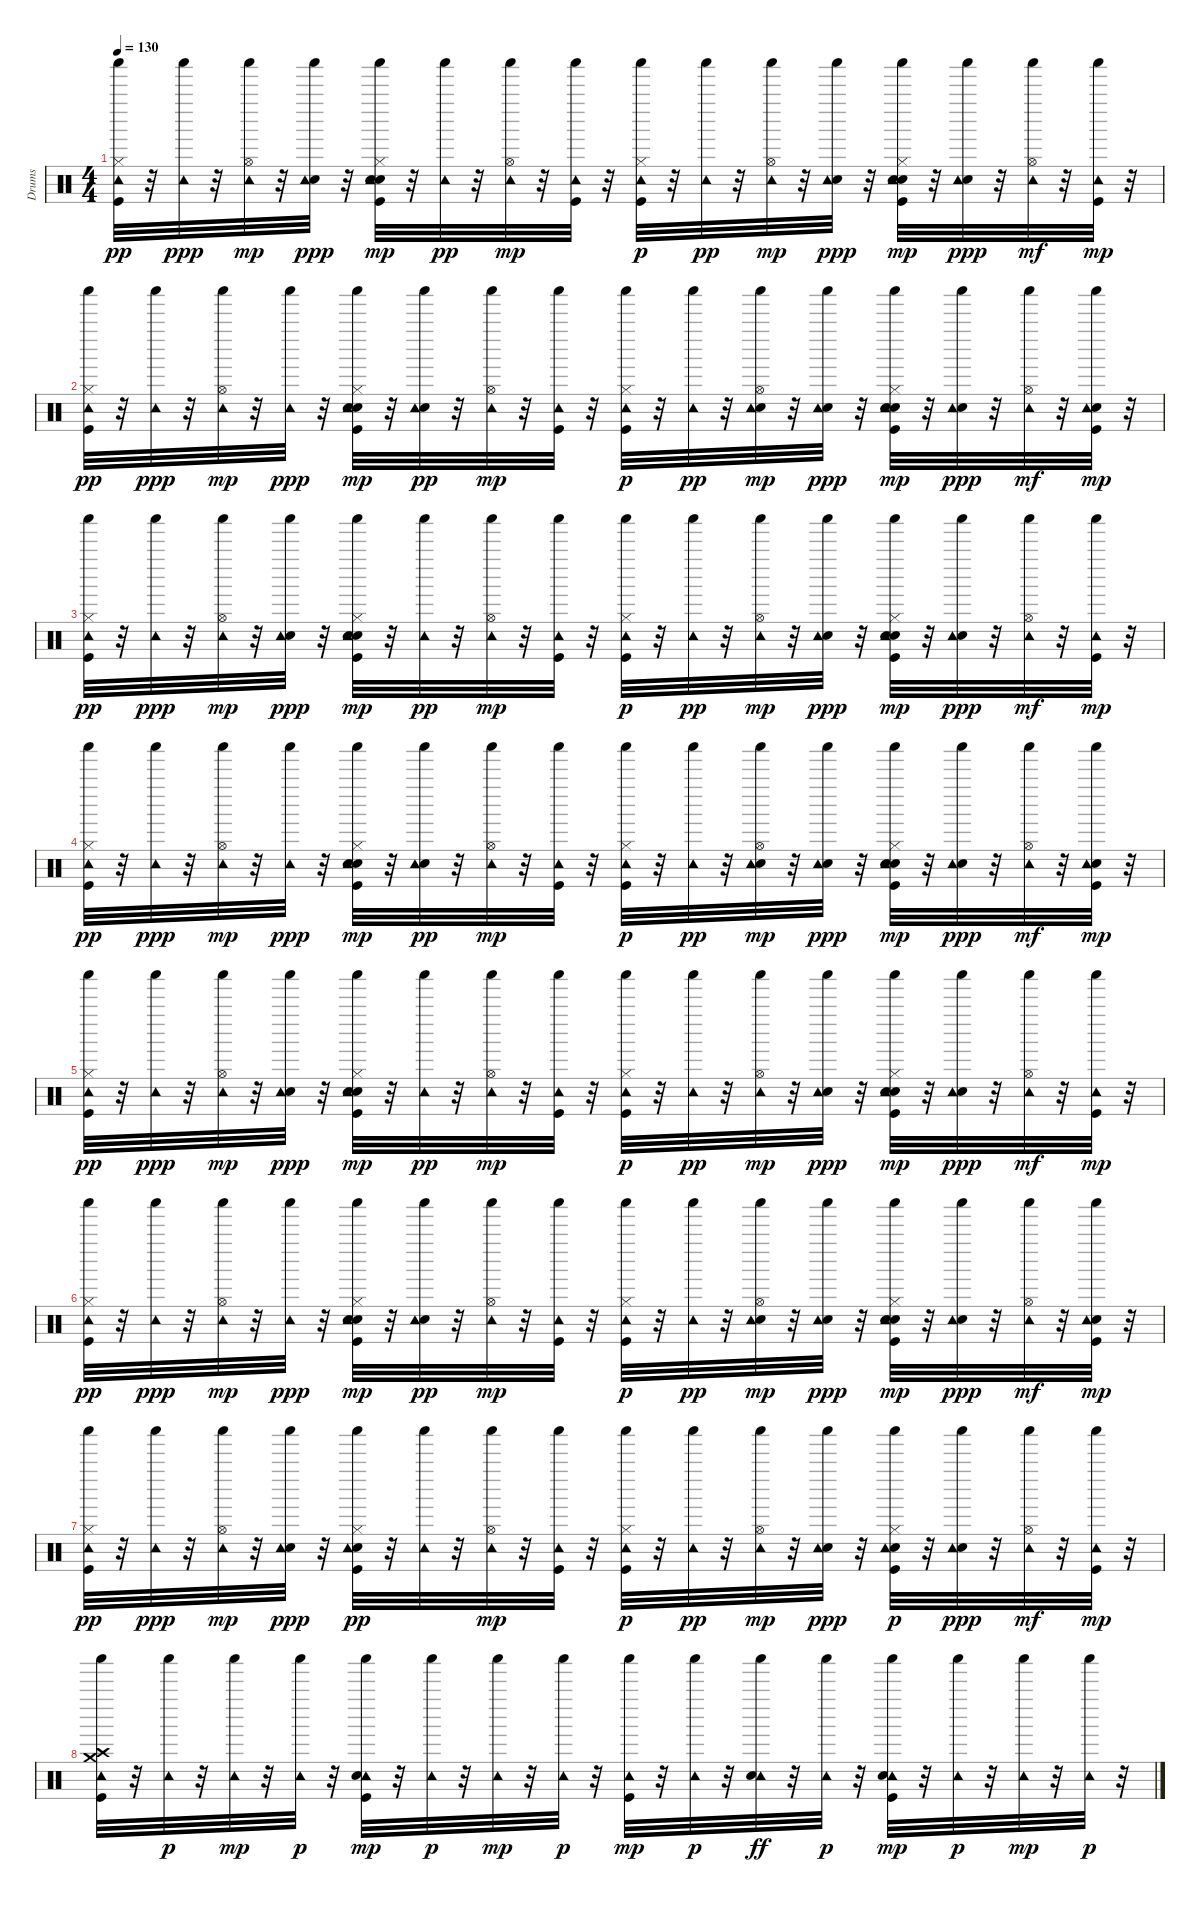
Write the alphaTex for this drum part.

\track ("Drums" "Drums") {instrument percussion}
\staff {score}
\articulation defaults
\ts (4 4)
\tempo 130
\clef neutral
\ks c
("Kick (hit)" "Shaker (hit)" "Hi-Hat (closed)" "Tambourine (hit)").32{dy pp} r.32 ("Shaker (hit)" "Tambourine (hit)").32{dy ppp} r.32 ("Shaker (hit)" "Hi-Hat (open)" "Tambourine (hit)").32{dy mp} r.32 ("Shaker (hit)" "Electric Snare (hit)" "Tambourine (hit)").32{dy ppp} r.32 ("Kick (hit)" "Shaker (hit)" "Hi-Hat (closed)" "Hand Clap (hit)" "Tambourine (hit)" "Snare (hit) 2").32{dy mp} r.32 ("Shaker (hit)" "Tambourine (hit)").32{dy pp} r.32 ("Shaker (hit)" "Hi-Hat (open)" "Tambourine (hit)").32{dy mp} r.32 ("Shaker (hit)" "Tambourine (hit)" "Kick (hit)").32 r.32 ("Kick (hit)" "Shaker (hit)" "Hi-Hat (closed)" "Tambourine (hit)").32{dy p} r.32 ("Shaker (hit)" "Tambourine (hit)").32{dy pp} r.32 ("Shaker (hit)" "Hi-Hat (open)" "Tambourine (hit)").32{dy mp} r.32 ("Shaker (hit)" "Electric Snare (hit)" "Tambourine (hit)").32{dy ppp} r.32 ("Kick (hit)" "Shaker (hit)" "Hi-Hat (closed)" "Hand Clap (hit)" "Tambourine (hit)" "Snare (hit) 2").32{dy mp} r.32 ("Shaker (hit)" "Electric Snare (hit)" "Tambourine (hit)").32{dy ppp} r.32 ("Shaker (hit)" "Hi-Hat (open)" "Tambourine (hit)").32{dy mf} r.32 ("Shaker (hit)" "Tambourine (hit)" "Kick (hit)").32{dy mp} r.32 |
("Kick (hit)" "Shaker (hit)" "Hi-Hat (closed)" "Tambourine (hit)").32{dy pp} r.32 ("Shaker (hit)" "Tambourine (hit)").32{dy ppp} r.32 ("Shaker (hit)" "Hi-Hat (open)" "Tambourine (hit)").32{dy mp} r.32 ("Shaker (hit)" "Tambourine (hit)").32{dy ppp} r.32 ("Kick (hit)" "Shaker (hit)" "Hi-Hat (closed)" "Hand Clap (hit)" "Tambourine (hit)" "Snare (hit) 2").32{dy mp} r.32 ("Shaker (hit)" "Electric Snare (hit)" "Tambourine (hit)").32{dy pp} r.32 ("Shaker (hit)" "Hi-Hat (open)" "Tambourine (hit)").32{dy mp} r.32 ("Shaker (hit)" "Tambourine (hit)" "Kick (hit)").32 r.32 ("Kick (hit)" "Shaker (hit)" "Hi-Hat (closed)" "Tambourine (hit)").32{dy p} r.32 ("Shaker (hit)" "Tambourine (hit)").32{dy pp} r.32 ("Shaker (hit)" "Hand Clap (hit)" "Hi-Hat (open)" "Tambourine (hit)").32{dy mp} r.32 ("Shaker (hit)" "Electric Snare (hit)" "Tambourine (hit)").32{dy ppp} r.32 ("Kick (hit)" "Shaker (hit)" "Hi-Hat (closed)" "Hand Clap (hit)" "Tambourine (hit)" "Snare (hit) 2").32{dy mp} r.32 ("Shaker (hit)" "Electric Snare (hit)" "Tambourine (hit)").32{dy ppp} r.32 ("Shaker (hit)" "Hi-Hat (open)" "Tambourine (hit)").32{dy mf} r.32 ("Shaker (hit)" "Electric Snare (hit)" "Tambourine (hit)" "Kick (hit)").32{dy mp} r.32 |
("Kick (hit)" "Hi-Hat (closed)" "Shaker (hit)" "Tambourine (hit)").32{dy pp} r.32 ("Shaker (hit)" "Tambourine (hit)").32{dy ppp} r.32 ("Shaker (hit)" "Hi-Hat (open)" "Tambourine (hit)").32{dy mp} r.32 ("Shaker (hit)" "Electric Snare (hit)" "Tambourine (hit)").32{dy ppp} r.32 ("Kick (hit)" "Hi-Hat (closed)" "Hand Clap (hit)" "Shaker (hit)" "Tambourine (hit)" "Snare (hit) 2").32{dy mp} r.32 ("Shaker (hit)" "Tambourine (hit)").32{dy pp} r.32 ("Shaker (hit)" "Hi-Hat (open)" "Tambourine (hit)").32{dy mp} r.32 ("Shaker (hit)" "Tambourine (hit)" "Kick (hit)").32 r.32 ("Kick (hit)" "Hi-Hat (closed)" "Shaker (hit)" "Tambourine (hit)").32{dy p} r.32 ("Shaker (hit)" "Tambourine (hit)").32{dy pp} r.32 ("Shaker (hit)" "Hi-Hat (open)" "Tambourine (hit)").32{dy mp} r.32 ("Shaker (hit)" "Electric Snare (hit)" "Tambourine (hit)").32{dy ppp} r.32 ("Kick (hit)" "Hi-Hat (closed)" "Hand Clap (hit)" "Shaker (hit)" "Tambourine (hit)" "Snare (hit) 2").32{dy mp} r.32 ("Shaker (hit)" "Electric Snare (hit)" "Tambourine (hit)").32{dy ppp} r.32 ("Shaker (hit)" "Hi-Hat (open)" "Tambourine (hit)").32{dy mf} r.32 ("Shaker (hit)" "Tambourine (hit)" "Kick (hit)").32{dy mp} r.32 |
("Kick (hit)" "Hi-Hat (closed)" "Shaker (hit)" "Tambourine (hit)").32{dy pp} r.32 ("Shaker (hit)" "Tambourine (hit)").32{dy ppp} r.32 ("Shaker (hit)" "Hi-Hat (open)" "Tambourine (hit)").32{dy mp} r.32 ("Shaker (hit)" "Tambourine (hit)").32{dy ppp} r.32 ("Kick (hit)" "Hi-Hat (closed)" "Hand Clap (hit)" "Shaker (hit)" "Tambourine (hit)" "Snare (hit) 2").32{dy mp} r.32 ("Shaker (hit)" "Electric Snare (hit)" "Tambourine (hit)").32{dy pp} r.32 ("Shaker (hit)" "Hi-Hat (open)" "Tambourine (hit)").32{dy mp} r.32 ("Shaker (hit)" "Tambourine (hit)" "Kick (hit)").32 r.32 ("Kick (hit)" "Hi-Hat (closed)" "Shaker (hit)" "Tambourine (hit)").32{dy p} r.32 ("Shaker (hit)" "Tambourine (hit)").32{dy pp} r.32 ("Hand Clap (hit)" "Shaker (hit)" "Hi-Hat (open)" "Tambourine (hit)").32{dy mp} r.32 ("Shaker (hit)" "Electric Snare (hit)" "Tambourine (hit)").32{dy ppp} r.32 ("Kick (hit)" "Hi-Hat (closed)" "Hand Clap (hit)" "Shaker (hit)" "Tambourine (hit)" "Snare (hit) 2").32{dy mp} r.32 ("Shaker (hit)" "Electric Snare (hit)" "Tambourine (hit)").32{dy ppp} r.32 ("Shaker (hit)" "Hi-Hat (open)" "Tambourine (hit)").32{dy mf} r.32 ("Shaker (hit)" "Electric Snare (hit)" "Tambourine (hit)" "Kick (hit)").32{dy mp} r.32 |
("Kick (hit)" "Shaker (hit)" "Hi-Hat (closed)" "Tambourine (hit)").32{dy pp} r.32 ("Shaker (hit)" "Tambourine (hit)").32{dy ppp} r.32 ("Shaker (hit)" "Hi-Hat (open)" "Tambourine (hit)").32{dy mp} r.32 ("Shaker (hit)" "Electric Snare (hit)" "Tambourine (hit)").32{dy ppp} r.32 ("Kick (hit)" "Shaker (hit)" "Hi-Hat (closed)" "Hand Clap (hit)" "Tambourine (hit)" "Snare (hit) 2").32{dy mp} r.32 ("Shaker (hit)" "Tambourine (hit)").32{dy pp} r.32 ("Shaker (hit)" "Hi-Hat (open)" "Tambourine (hit)").32{dy mp} r.32 ("Shaker (hit)" "Tambourine (hit)" "Kick (hit)").32 r.32 ("Kick (hit)" "Shaker (hit)" "Hi-Hat (closed)" "Tambourine (hit)").32{dy p} r.32 ("Shaker (hit)" "Tambourine (hit)").32{dy pp} r.32 ("Shaker (hit)" "Hi-Hat (open)" "Tambourine (hit)").32{dy mp} r.32 ("Shaker (hit)" "Electric Snare (hit)" "Tambourine (hit)").32{dy ppp} r.32 ("Kick (hit)" "Shaker (hit)" "Hi-Hat (closed)" "Hand Clap (hit)" "Tambourine (hit)" "Snare (hit) 2").32{dy mp} r.32 ("Shaker (hit)" "Electric Snare (hit)" "Tambourine (hit)").32{dy ppp} r.32 ("Shaker (hit)" "Hi-Hat (open)" "Tambourine (hit)").32{dy mf} r.32 ("Shaker (hit)" "Tambourine (hit)" "Kick (hit)").32{dy mp} r.32 |
("Kick (hit)" "Shaker (hit)" "Hi-Hat (closed)" "Tambourine (hit)").32{dy pp} r.32 ("Shaker (hit)" "Tambourine (hit)").32{dy ppp} r.32 ("Shaker (hit)" "Hi-Hat (open)" "Tambourine (hit)").32{dy mp} r.32 ("Shaker (hit)" "Tambourine (hit)").32{dy ppp} r.32 ("Kick (hit)" "Shaker (hit)" "Hi-Hat (closed)" "Hand Clap (hit)" "Tambourine (hit)" "Snare (hit) 2").32{dy mp} r.32 ("Shaker (hit)" "Electric Snare (hit)" "Tambourine (hit)").32{dy pp} r.32 ("Shaker (hit)" "Hi-Hat (open)" "Tambourine (hit)").32{dy mp} r.32 ("Shaker (hit)" "Tambourine (hit)" "Kick (hit)").32 r.32 ("Kick (hit)" "Shaker (hit)" "Hi-Hat (closed)" "Tambourine (hit)").32{dy p} r.32 ("Shaker (hit)" "Tambourine (hit)").32{dy pp} r.32 ("Shaker (hit)" "Hand Clap (hit)" "Hi-Hat (open)" "Tambourine (hit)").32{dy mp} r.32 ("Shaker (hit)" "Electric Snare (hit)" "Tambourine (hit)").32{dy ppp} r.32 ("Kick (hit)" "Shaker (hit)" "Hi-Hat (closed)" "Hand Clap (hit)" "Tambourine (hit)" "Snare (hit) 2").32{dy mp} r.32 ("Shaker (hit)" "Electric Snare (hit)" "Tambourine (hit)").32{dy ppp} r.32 ("Shaker (hit)" "Hi-Hat (open)" "Tambourine (hit)").32{dy mf} r.32 ("Shaker (hit)" "Electric Snare (hit)" "Tambourine (hit)" "Kick (hit)").32{dy mp} r.32 |
("Kick (hit)" "Shaker (hit)" "Hi-Hat (closed)" "Tambourine (hit)").32{dy pp} r.32 ("Shaker (hit)" "Tambourine (hit)").32{dy ppp} r.32 ("Shaker (hit)" "Hi-Hat (open)" "Tambourine (hit)").32{dy mp} r.32 ("Shaker (hit)" "Electric Snare (hit)" "Tambourine (hit)").32{dy ppp} r.32 ("Kick (hit)" "Shaker (hit)" "Hi-Hat (closed)" "Hand Clap (hit)" "Tambourine (hit)").32{dy pp} r.32 ("Shaker (hit)" "Tambourine (hit)").32 r.32 ("Shaker (hit)" "Hi-Hat (open)" "Tambourine (hit)").32{dy mp} r.32 ("Shaker (hit)" "Tambourine (hit)" "Kick (hit)").32 r.32 ("Kick (hit)" "Shaker (hit)" "Hi-Hat (closed)" "Tambourine (hit)").32{dy p} r.32 ("Shaker (hit)" "Tambourine (hit)").32{dy pp} r.32 ("Shaker (hit)" "Hi-Hat (open)" "Tambourine (hit)").32{dy mp} r.32 ("Shaker (hit)" "Electric Snare (hit)" "Tambourine (hit)").32{dy ppp} r.32 ("Kick (hit)" "Shaker (hit)" "Hi-Hat (closed)" "Hand Clap (hit)" "Tambourine (hit)").32{dy p} r.32 ("Shaker (hit)" "Electric Snare (hit)" "Tambourine (hit)").32{dy ppp} r.32 ("Shaker (hit)" "Hi-Hat (open)" "Tambourine (hit)").32{dy mf} r.32 ("Shaker (hit)" "Tambourine (hit)" "Kick (hit)").32{dy mp} r.32 |
("Kick (hit)" "Crash high (hit)" "Crash medium (hit)" "Tambourine (hit)" "Shaker (hit)").32 r.32 ("Tambourine (hit)" "Shaker (hit)").32{dy p} r.32 ("Tambourine (hit)" "Shaker (hit)").32{dy mp} r.32 ("Tambourine (hit)" "Shaker (hit)").32{dy p} r.32 ("Tambourine (hit)" "Shaker (hit)" "Hand Clap (hit)" "Kick (hit)").32{dy mp} r.32 ("Tambourine (hit)" "Shaker (hit)").32{dy p} r.32 ("Tambourine (hit)" "Shaker (hit)").32{dy mp} r.32 ("Tambourine (hit)" "Shaker (hit)").32{dy p} r.32 ("Tambourine (hit)" "Shaker (hit)" "Kick (hit)").32{dy mp} r.32 ("Tambourine (hit)" "Shaker (hit)").32{dy p} r.32 ("Tambourine (hit)" "Shaker (hit)" "Hand Clap (hit)").32{dy ff} r.32 ("Tambourine (hit)" "Shaker (hit)").32{dy p} r.32 ("Tambourine (hit)" "Shaker (hit)" "Hand Clap (hit)" "Kick (hit)").32{dy mp} r.32 ("Tambourine (hit)" "Shaker (hit)").32{dy p} r.32 ("Tambourine (hit)" "Shaker (hit)").32{dy mp} r.32 ("Tambourine (hit)" "Shaker (hit)").32{dy p} r.32
